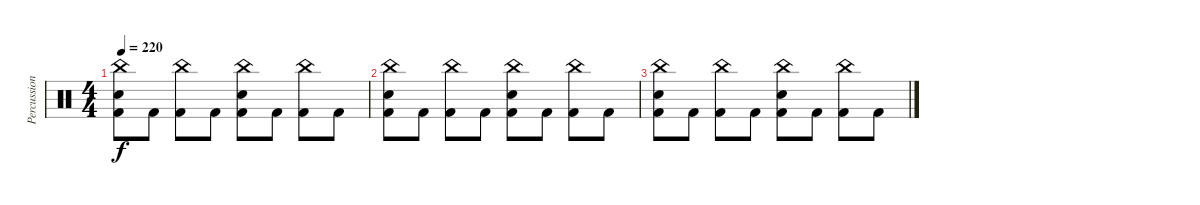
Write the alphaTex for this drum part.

\track ("Percussions" "Percussion") {instrument percussion}
\staff {score}
\articulation defaults
\ts (4 4)
\tempo 220
\clef neutral
\ks c
("China (hit)" "Electric Snare (hit)" "Kick (hit) 2").8{dy f} "Kick (hit) 2".8 ("China (hit)" "Kick (hit) 2").8 "Kick (hit) 2".8 ("China (hit)" "Electric Snare (hit)" "Kick (hit) 2").8 "Kick (hit) 2".8 ("China (hit)" "Kick (hit) 2").8 "Kick (hit) 2".8 |
("China (hit)" "Electric Snare (hit)" "Kick (hit) 2").8 "Kick (hit) 2".8 ("China (hit)" "Kick (hit) 2").8 "Kick (hit) 2".8 ("China (hit)" "Electric Snare (hit)" "Kick (hit) 2").8 "Kick (hit) 2".8 ("China (hit)" "Kick (hit) 2").8 "Kick (hit) 2".8 |
("China (hit)" "Electric Snare (hit)" "Kick (hit) 2").8 "Kick (hit) 2".8 ("China (hit)" "Kick (hit) 2").8 "Kick (hit) 2".8 ("China (hit)" "Electric Snare (hit)" "Kick (hit) 2").8 "Kick (hit) 2".8 ("China (hit)" "Kick (hit) 2").8 "Kick (hit) 2".8
